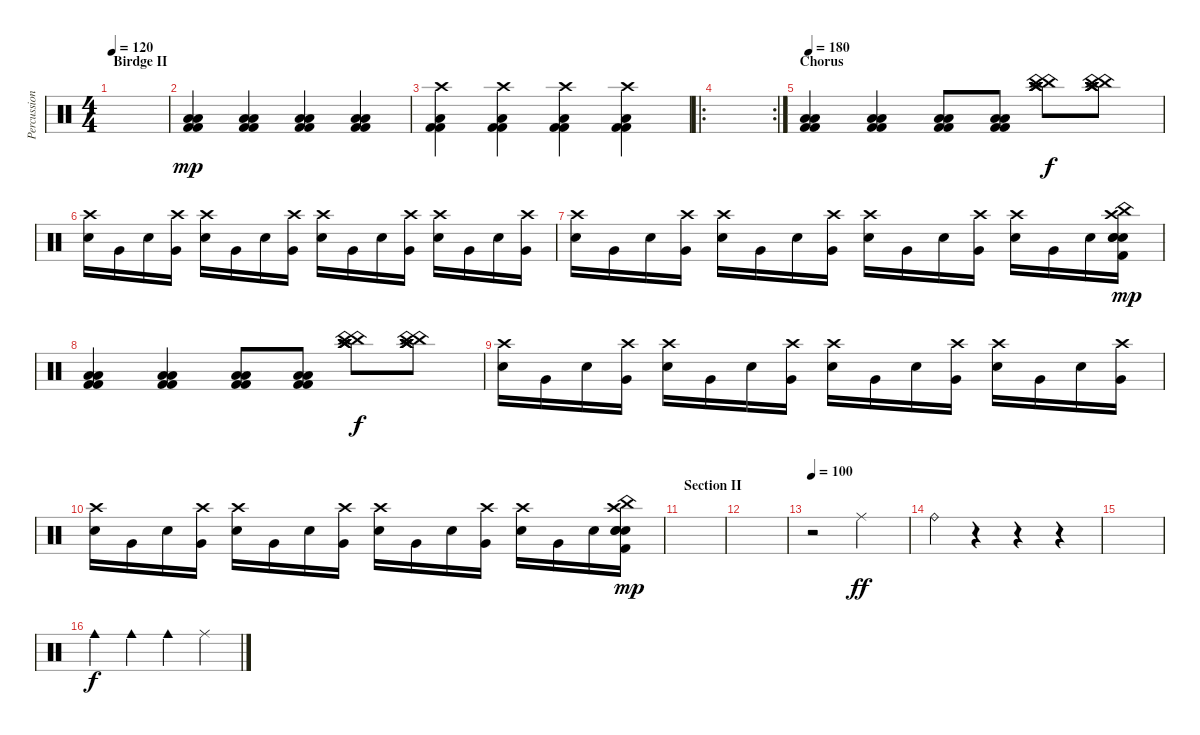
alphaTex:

\track ("Percussions" "Percussion") {instrument percussion}
\staff {score}
\articulation defaults
\ts (4 4)
\section ("" "Birdge II")
\tempo 120
\clef neutral
\ks c
|
("Low Tom (hit)" "Low Floor Tom (hit)" "Kick (hit) 2" "Kick (hit) 2").4{dy mp} ("Low Tom (hit)" "Low Floor Tom (hit)" "Kick (hit) 2" "Kick (hit) 2").4 ("Low Tom (hit)" "Low Floor Tom (hit)" "Kick (hit) 2" "Kick (hit) 2").4 ("Low Tom (hit)" "Low Floor Tom (hit)" "Kick (hit) 2" "Kick (hit) 2").4 |
("Low Tom (hit)" "Crash high (hit)" "Kick (hit) 2" "Kick (hit) 2").4 ("Low Tom (hit)" "Crash high (hit)" "Kick (hit) 2" "Kick (hit) 2").4 ("Low Tom (hit)" "Crash high (hit)" "Kick (hit) 2" "Kick (hit) 2").4 ("Low Tom (hit)" "Crash high (hit)" "Kick (hit) 2" "Kick (hit) 2").4 |
\ro
\rc 2
|
\section ("" "Chorus")
\tempo 180
("Low Tom (hit)" "Low Floor Tom (hit)" "Kick (hit) 2" "Kick (hit) 2").4 ("Low Tom (hit)" "Low Floor Tom (hit)" "Kick (hit) 2" "Kick (hit) 2").4 ("Low Tom (hit)" "Low Floor Tom (hit)" "Kick (hit) 2" "Kick (hit) 2").8 ("Low Tom (hit)" "Low Floor Tom (hit)" "Kick (hit) 2" "Kick (hit) 2").8 ("Crash high (hit)" "Crash high (hit)" "Crash high (hit)" "China (hit)" "China (hit)").8{dy f} ("Crash high (hit)" "Crash high (hit)" "Crash high (hit)" "China (hit)" "China (hit)").8 |
("Electric Snare (hit)" "Crash high (hit)").16 "Very Low Tom (hit)".16 "Electric Snare (hit)".16 ("Very Low Tom (hit)" "Crash high (hit)").16 ("Electric Snare (hit)" "Crash high (hit)").16 "Very Low Tom (hit)".16 "Electric Snare (hit)".16 ("Very Low Tom (hit)" "Crash high (hit)").16 ("Electric Snare (hit)" "Crash high (hit)").16 "Very Low Tom (hit)".16 "Electric Snare (hit)".16 ("Very Low Tom (hit)" "Crash high (hit)").16 ("Electric Snare (hit)" "Crash high (hit)").16 "Very Low Tom (hit)".16 "Electric Snare (hit)".16 ("Very Low Tom (hit)" "Crash high (hit)").16{bd 240} |
("Electric Snare (hit)" "Crash high (hit)").16 "Very Low Tom (hit)".16 "Electric Snare (hit)".16 ("Very Low Tom (hit)" "Crash high (hit)").16 ("Electric Snare (hit)" "Crash high (hit)").16 "Very Low Tom (hit)".16 "Electric Snare (hit)".16 ("Very Low Tom (hit)" "Crash high (hit)").16 ("Electric Snare (hit)" "Crash high (hit)").16 "Very Low Tom (hit)".16 "Electric Snare (hit)".16 ("Very Low Tom (hit)" "Crash high (hit)").16 ("Electric Snare (hit)" "Crash high (hit)").16 "Very Low Tom (hit)".16 "Electric Snare (hit)".16 ("China (hit)" "Crash high (hit)" "Electric Snare (hit)" "Electric Snare (hit)" "Electric Snare (hit)" "Kick (hit) 2").16{bd 240 dy mp} |
("Low Tom (hit)" "Low Floor Tom (hit)" "Kick (hit) 2" "Kick (hit) 2").4 ("Low Tom (hit)" "Low Floor Tom (hit)" "Kick (hit) 2" "Kick (hit) 2").4 ("Low Tom (hit)" "Low Floor Tom (hit)" "Kick (hit) 2" "Kick (hit) 2").8 ("Low Tom (hit)" "Low Floor Tom (hit)" "Kick (hit) 2" "Kick (hit) 2").8 ("Crash high (hit)" "Crash high (hit)" "Crash high (hit)" "China (hit)" "China (hit)").8{dy f} ("Crash high (hit)" "Crash high (hit)" "Crash high (hit)" "China (hit)" "China (hit)").8 |
("Electric Snare (hit)" "Crash high (hit)").16 "Very Low Tom (hit)".16 "Electric Snare (hit)".16 ("Very Low Tom (hit)" "Crash high (hit)").16 ("Electric Snare (hit)" "Crash high (hit)").16 "Very Low Tom (hit)".16 "Electric Snare (hit)".16 ("Very Low Tom (hit)" "Crash high (hit)").16 ("Electric Snare (hit)" "Crash high (hit)").16 "Very Low Tom (hit)".16 "Electric Snare (hit)".16 ("Very Low Tom (hit)" "Crash high (hit)").16 ("Electric Snare (hit)" "Crash high (hit)").16 "Very Low Tom (hit)".16 "Electric Snare (hit)".16 ("Very Low Tom (hit)" "Crash high (hit)").16{bd 240} |
("Electric Snare (hit)" "Crash high (hit)").16 "Very Low Tom (hit)".16 "Electric Snare (hit)".16 ("Very Low Tom (hit)" "Crash high (hit)").16 ("Electric Snare (hit)" "Crash high (hit)").16 "Very Low Tom (hit)".16 "Electric Snare (hit)".16 ("Very Low Tom (hit)" "Crash high (hit)").16 ("Electric Snare (hit)" "Crash high (hit)").16 "Very Low Tom (hit)".16 "Electric Snare (hit)".16 ("Very Low Tom (hit)" "Crash high (hit)").16 ("Electric Snare (hit)" "Crash high (hit)").16 "Very Low Tom (hit)".16 "Electric Snare (hit)".16 ("China (hit)" "Crash high (hit)" "Electric Snare (hit)" "Electric Snare (hit)" "Electric Snare (hit)" "Kick (hit) 2").16{bd 240 dy mp} |
\section ("" "Section II")
|
|
\tempo 100
r.2 "Ride (middle)".2{dy ff} |
"Ride (bell)".4 r.4 r.4 r.4 |
|
"Cowbell medium (hit)".4{dy f} "Cowbell medium (hit)".4 "Cowbell medium (hit)".4 "Ride (middle)".4
